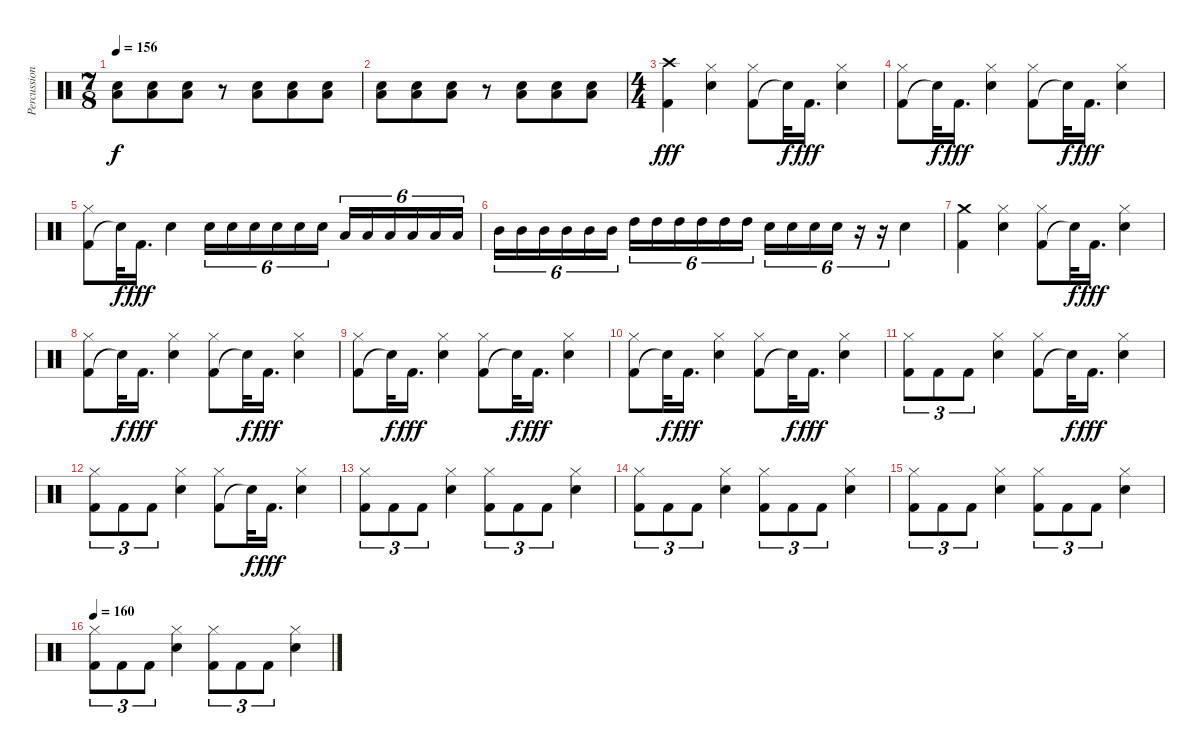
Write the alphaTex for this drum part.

\track ("Percussion" "Percussion") {instrument percussion}
\staff {score}
\articulation defaults
\ts (7 8)
\tempo 156
\clef neutral
\ks c
("Low Tom (hit)" "Electric Snare (hit)").8{dy f} ("Low Tom (hit)" "Electric Snare (hit)").8 ("Low Tom (hit)" "Electric Snare (hit)").8 r.8 ("Low Tom (hit)" "Electric Snare (hit)").8 ("Low Tom (hit)" "Electric Snare (hit)").8 ("Low Tom (hit)" "Electric Snare (hit)").8 |
("Low Tom (hit)" "Electric Snare (hit)").8 ("Low Tom (hit)" "Electric Snare (hit)").8 ("Low Tom (hit)" "Electric Snare (hit)").8 r.8 ("Low Tom (hit)" "Electric Snare (hit)").8 ("Low Tom (hit)" "Electric Snare (hit)").8 ("Low Tom (hit)" "Electric Snare (hit)").8 |
\ts (4 4)
("Kick (hit) 2" "Crash high (hit)").4{dy fff} ("Electric Snare (hit)" "Hi-Hat (closed)").4 ("Kick (hit) 2" "Hi-Hat (closed)").8 "Snare (hit)"{t}.32{dy f} "Kick (hit) 2".16{d dy fff} ("Electric Snare (hit)" "Hi-Hat (closed)").4 |
("Kick (hit) 2" "Hi-Hat (closed)").8 "Snare (hit)"{t}.32{dy f} "Kick (hit) 2".16{d dy fff} ("Electric Snare (hit)" "Hi-Hat (closed)").4 ("Kick (hit) 2" "Hi-Hat (closed)").8 "Snare (hit)"{t}.32{dy f} "Kick (hit) 2".16{d dy fff} ("Electric Snare (hit)" "Hi-Hat (closed)").4 |
("Kick (hit) 2" "Hi-Hat (closed)").8 "Snare (hit)"{t}.32{dy f} "Kick (hit) 2".16{d dy fff} "Electric Snare (hit)".4 "Electric Snare (hit)".16{tu (6 4)} "Electric Snare (hit)".16{tu (6 4)} "Electric Snare (hit)".16{tu (6 4)} "Electric Snare (hit)".16{tu (6 4)} "Electric Snare (hit)".16{tu (6 4)} "Electric Snare (hit)".16{tu (6 4)} "Low Tom (hit)".16{tu (6 4)} "Low Tom (hit)".16{tu (6 4)} "Low Tom (hit)".16{tu (6 4)} "Low Tom (hit)".16{tu (6 4)} "Low Tom (hit)".16{tu (6 4)} "Low Tom (hit)".16{tu (6 4)} |
"Mid Tom (hit)".16{tu (6 4)} "Mid Tom (hit)".16{tu (6 4)} "Mid Tom (hit)".16{tu (6 4)} "Mid Tom (hit)".16{tu (6 4)} "Mid Tom (hit)".16{tu (6 4)} "Mid Tom (hit)".16{tu (6 4)} "High Tom (hit)".16{tu (6 4)} "High Tom (hit)".16{tu (6 4)} "High Tom (hit)".16{tu (6 4)} "High Tom (hit)".16{tu (6 4)} "High Tom (hit)".16{tu (6 4)} "High Tom (hit)".16{tu (6 4)} "Electric Snare (hit)".16{tu (6 4)} "Electric Snare (hit)".16{tu (6 4)} "Electric Snare (hit)".16{tu (6 4)} "Electric Snare (hit)".16{tu (6 4)} r.16{tu (6 4)} r.16{tu (6 4)} "Electric Snare (hit)".4 |
("Kick (hit) 2" "Crash medium (hit)").4 ("Electric Snare (hit)" "Hi-Hat (closed)").4 ("Kick (hit) 2" "Hi-Hat (closed)").8 "Snare (hit)"{t}.32{dy f} "Kick (hit) 2".16{d dy fff} ("Electric Snare (hit)" "Hi-Hat (closed)").4 |
("Kick (hit) 2" "Hi-Hat (closed)").8 "Snare (hit)"{t}.32{dy f} "Kick (hit) 2".16{d dy fff} ("Electric Snare (hit)" "Hi-Hat (closed)").4 ("Kick (hit) 2" "Hi-Hat (closed)").8 "Snare (hit)"{t}.32{dy f} "Kick (hit) 2".16{d dy fff} ("Electric Snare (hit)" "Hi-Hat (closed)").4 |
("Kick (hit) 2" "Hi-Hat (closed)").8 "Snare (hit)"{t}.32{dy f} "Kick (hit) 2".16{d dy fff} ("Electric Snare (hit)" "Hi-Hat (closed)").4 ("Kick (hit) 2" "Hi-Hat (closed)").8 "Snare (hit)"{t}.32{dy f} "Kick (hit) 2".16{d dy fff} ("Electric Snare (hit)" "Hi-Hat (closed)").4 |
("Kick (hit) 2" "Hi-Hat (closed)").8 "Snare (hit)"{t}.32{dy f} "Kick (hit) 2".16{d dy fff} ("Electric Snare (hit)" "Hi-Hat (closed)").4 ("Kick (hit) 2" "Hi-Hat (closed)").8 "Snare (hit)"{t}.32{dy f} "Kick (hit) 2".16{d dy fff} ("Electric Snare (hit)" "Hi-Hat (closed)").4 |
("Kick (hit) 2" "Hi-Hat (closed)").8{tu (3 2)} "Kick (hit) 2".8{tu (3 2)} "Kick (hit) 2".8{tu (3 2)} ("Electric Snare (hit)" "Hi-Hat (closed)").4 ("Kick (hit) 2" "Hi-Hat (closed)").8 "Snare (hit)"{t}.32{dy f} "Kick (hit) 2".16{d dy fff} ("Electric Snare (hit)" "Hi-Hat (closed)").4 |
("Kick (hit) 2" "Hi-Hat (closed)").8{tu (3 2)} "Kick (hit) 2".8{tu (3 2)} "Kick (hit) 2".8{tu (3 2)} ("Electric Snare (hit)" "Hi-Hat (closed)").4 ("Kick (hit) 2" "Hi-Hat (closed)").8 "Snare (hit)"{t}.32{dy f} "Kick (hit) 2".16{d dy fff} ("Electric Snare (hit)" "Hi-Hat (closed)").4 |
("Kick (hit) 2" "Hi-Hat (closed)").8{tu (3 2)} "Kick (hit) 2".8{tu (3 2)} "Kick (hit) 2".8{tu (3 2)} ("Electric Snare (hit)" "Hi-Hat (closed)").4 ("Kick (hit) 2" "Hi-Hat (closed)").8{tu (3 2)} "Kick (hit) 2".8{tu (3 2)} "Kick (hit) 2".8{tu (3 2)} ("Electric Snare (hit)" "Hi-Hat (closed)").4 |
("Kick (hit) 2" "Hi-Hat (closed)").8{tu (3 2)} "Kick (hit) 2".8{tu (3 2)} "Kick (hit) 2".8{tu (3 2)} ("Electric Snare (hit)" "Hi-Hat (closed)").4 ("Kick (hit) 2" "Hi-Hat (closed)").8{tu (3 2)} "Kick (hit) 2".8{tu (3 2)} "Kick (hit) 2".8{tu (3 2)} ("Electric Snare (hit)" "Hi-Hat (closed)").4 |
("Kick (hit) 2" "Hi-Hat (closed)").8{tu (3 2)} "Kick (hit) 2".8{tu (3 2)} "Kick (hit) 2".8{tu (3 2)} ("Electric Snare (hit)" "Hi-Hat (closed)").4 ("Kick (hit) 2" "Hi-Hat (closed)").8{tu (3 2)} "Kick (hit) 2".8{tu (3 2)} "Kick (hit) 2".8{tu (3 2)} ("Electric Snare (hit)" "Hi-Hat (closed)").4 |
\tempo 160
("Kick (hit) 2" "Hi-Hat (closed)").8{tu (3 2)} "Kick (hit) 2".8{tu (3 2)} "Kick (hit) 2".8{tu (3 2)} ("Electric Snare (hit)" "Hi-Hat (closed)").4 ("Kick (hit) 2" "Hi-Hat (closed)").8{tu (3 2)} "Kick (hit) 2".8{tu (3 2)} "Kick (hit) 2".8{tu (3 2)} ("Electric Snare (hit)" "Hi-Hat (closed)").4
